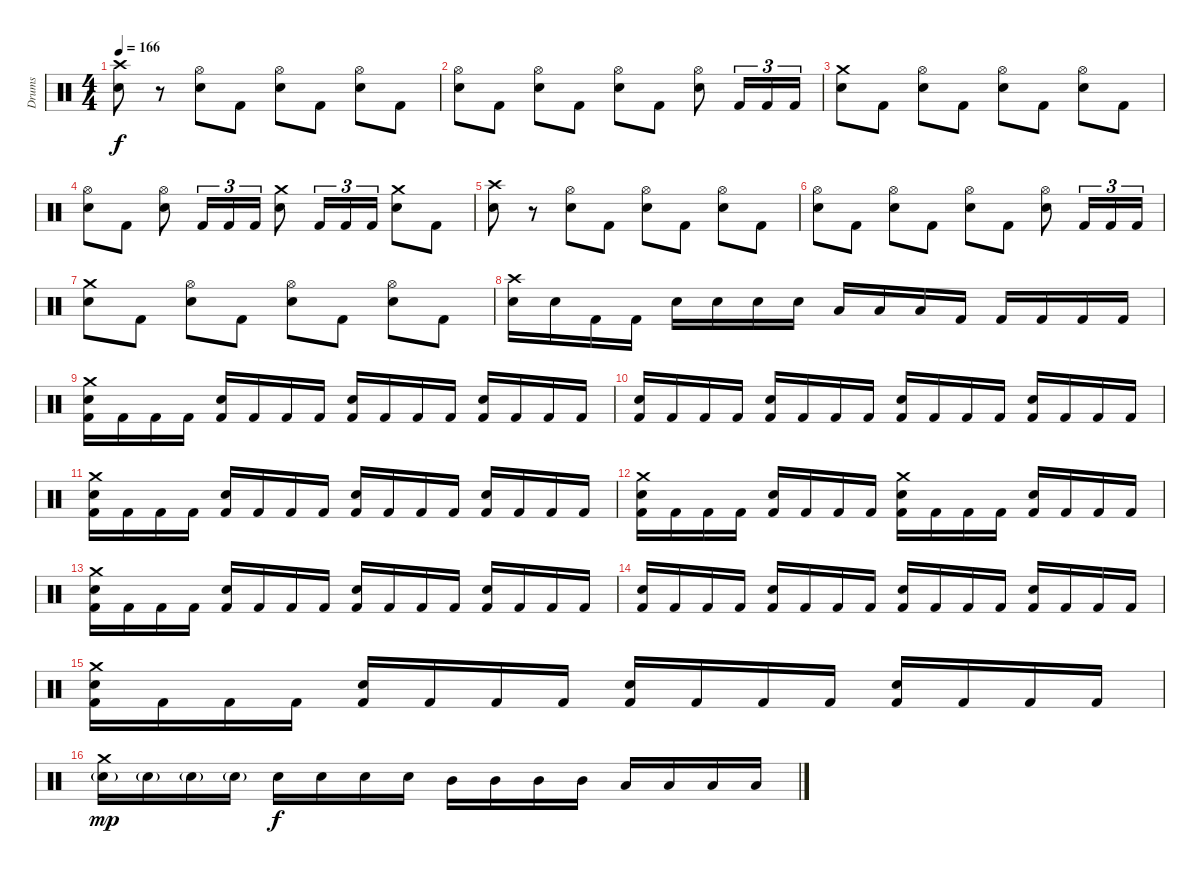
\track ("Drums" "Drums") {instrument percussion}
\staff {score}
\articulation defaults
\ts (4 4)
\tempo 166
\clef neutral
\ks c
("Crash high (hit)" "Snare (hit) 2").8{dy f} r.8 ("Hi-Hat (open)" "Snare (hit) 2").8 "Kick (hit) 2".8 ("Hi-Hat (open)" "Snare (hit) 2").8 "Kick (hit) 2".8 ("Hi-Hat (open)" "Snare (hit) 2").8 "Kick (hit) 2".8 |
("Hi-Hat (open)" "Snare (hit) 2").8 "Kick (hit) 2".8 ("Hi-Hat (open)" "Snare (hit) 2").8 "Kick (hit) 2".8 ("Hi-Hat (open)" "Snare (hit) 2").8 "Kick (hit) 2".8 ("Hi-Hat (open)" "Snare (hit) 2").8 "Kick (hit) 2".16{tu (3 2)} "Kick (hit) 2".16{tu (3 2)} "Kick (hit) 2".16{tu (3 2)} |
("Crash medium (hit)" "Snare (hit) 2").8 "Kick (hit) 2".8 ("Hi-Hat (open)" "Snare (hit) 2").8 "Kick (hit) 2".8 ("Hi-Hat (open)" "Snare (hit) 2").8 "Kick (hit) 2".8 ("Hi-Hat (open)" "Snare (hit) 2").8 "Kick (hit) 2".8 |
("Hi-Hat (open)" "Snare (hit) 2").8 "Kick (hit) 2".8 ("Hi-Hat (open)" "Snare (hit) 2").8 "Kick (hit) 2".16{tu (3 2)} "Kick (hit) 2".16{tu (3 2)} "Kick (hit) 2".16{tu (3 2)} ("Crash medium (hit)" "Snare (hit) 2").8 "Kick (hit) 2".16{tu (3 2)} "Kick (hit) 2".16{tu (3 2)} "Kick (hit) 2".16{tu (3 2)} ("Crash medium (hit)" "Snare (hit) 2").8 "Kick (hit) 2".8 |
("Crash high (hit)" "Snare (hit) 2").8 r.8 ("Hi-Hat (open)" "Snare (hit) 2").8 "Kick (hit) 2".8 ("Hi-Hat (open)" "Snare (hit) 2").8 "Kick (hit) 2".8 ("Hi-Hat (open)" "Snare (hit) 2").8 "Kick (hit) 2".8 |
("Hi-Hat (open)" "Snare (hit) 2").8 "Kick (hit) 2".8 ("Hi-Hat (open)" "Snare (hit) 2").8 "Kick (hit) 2".8 ("Hi-Hat (open)" "Snare (hit) 2").8 "Kick (hit) 2".8 ("Hi-Hat (open)" "Snare (hit) 2").8 "Kick (hit) 2".16{tu (3 2)} "Kick (hit) 2".16{tu (3 2)} "Kick (hit) 2".16{tu (3 2)} |
("Crash medium (hit)" "Snare (hit) 2").8 "Kick (hit) 2".8 ("Hi-Hat (open)" "Snare (hit) 2").8 "Kick (hit) 2".8 ("Hi-Hat (open)" "Snare (hit) 2").8 "Kick (hit) 2".8 ("Hi-Hat (open)" "Snare (hit) 2").8 "Kick (hit) 2".8 |
("Crash high (hit)" "Snare (hit) 2").16 "Snare (hit) 2".16 "Kick (hit) 2".16 "Kick (hit) 2".16 "Snare (hit) 2".16 "Snare (hit) 2".16 "Snare (hit) 2".16 "Snare (hit) 2".16 "Low Tom (hit)".16 "Low Tom (hit)".16 "Low Tom (hit)".16 "Kick (hit) 2".16 "Kick (hit) 2".16 "Kick (hit) 2".16 "Kick (hit) 2".16 "Kick (hit) 2".16 |
("Crash medium (hit)" "Snare (hit) 2" "Kick (hit) 2").16 "Kick (hit) 2".16 "Kick (hit) 2".16 "Kick (hit) 2".16 ("Snare (hit) 2" "Kick (hit) 2").16 "Kick (hit) 2".16 "Kick (hit) 2".16 "Kick (hit) 2".16 ("Snare (hit) 2" "Kick (hit) 2").16 "Kick (hit) 2".16 "Kick (hit) 2".16 "Kick (hit) 2".16 ("Snare (hit) 2" "Kick (hit) 2").16 "Kick (hit) 2".16 "Kick (hit) 2".16 "Kick (hit) 2".16 |
("Snare (hit) 2" "Kick (hit) 2").16 "Kick (hit) 2".16 "Kick (hit) 2".16 "Kick (hit) 2".16 ("Snare (hit) 2" "Kick (hit) 2").16 "Kick (hit) 2".16 "Kick (hit) 2".16 "Kick (hit) 2".16 ("Snare (hit) 2" "Kick (hit) 2").16 "Kick (hit) 2".16 "Kick (hit) 2".16 "Kick (hit) 2".16 ("Snare (hit) 2" "Kick (hit) 2").16 "Kick (hit) 2".16 "Kick (hit) 2".16 "Kick (hit) 2".16 |
("Crash medium (hit)" "Snare (hit) 2" "Kick (hit) 2").16 "Kick (hit) 2".16 "Kick (hit) 2".16 "Kick (hit) 2".16 ("Snare (hit) 2" "Kick (hit) 2").16 "Kick (hit) 2".16 "Kick (hit) 2".16 "Kick (hit) 2".16 ("Snare (hit) 2" "Kick (hit) 2").16 "Kick (hit) 2".16 "Kick (hit) 2".16 "Kick (hit) 2".16 ("Snare (hit) 2" "Kick (hit) 2").16 "Kick (hit) 2".16 "Kick (hit) 2".16 "Kick (hit) 2".16 |
("Crash medium (hit)" "Snare (hit) 2" "Kick (hit) 2").16 "Kick (hit) 2".16 "Kick (hit) 2".16 "Kick (hit) 2".16 ("Snare (hit) 2" "Kick (hit) 2").16 "Kick (hit) 2".16 "Kick (hit) 2".16 "Kick (hit) 2".16 ("Crash medium (hit)" "Snare (hit) 2" "Kick (hit) 2").16 "Kick (hit) 2".16 "Kick (hit) 2".16 "Kick (hit) 2".16 ("Snare (hit) 2" "Kick (hit) 2").16 "Kick (hit) 2".16 "Kick (hit) 2".16 "Kick (hit) 2".16 |
("Crash medium (hit)" "Snare (hit) 2" "Kick (hit) 2").16 "Kick (hit) 2".16 "Kick (hit) 2".16 "Kick (hit) 2".16 ("Snare (hit) 2" "Kick (hit) 2").16 "Kick (hit) 2".16 "Kick (hit) 2".16 "Kick (hit) 2".16 ("Snare (hit) 2" "Kick (hit) 2").16 "Kick (hit) 2".16 "Kick (hit) 2".16 "Kick (hit) 2".16 ("Snare (hit) 2" "Kick (hit) 2").16 "Kick (hit) 2".16 "Kick (hit) 2".16 "Kick (hit) 2".16 |
("Snare (hit) 2" "Kick (hit) 2").16 "Kick (hit) 2".16 "Kick (hit) 2".16 "Kick (hit) 2".16 ("Snare (hit) 2" "Kick (hit) 2").16 "Kick (hit) 2".16 "Kick (hit) 2".16 "Kick (hit) 2".16 ("Snare (hit) 2" "Kick (hit) 2").16 "Kick (hit) 2".16 "Kick (hit) 2".16 "Kick (hit) 2".16 ("Snare (hit) 2" "Kick (hit) 2").16 "Kick (hit) 2".16 "Kick (hit) 2".16 "Kick (hit) 2".16 |
("Crash medium (hit)" "Snare (hit) 2" "Kick (hit) 2").16 "Kick (hit) 2".16 "Kick (hit) 2".16 "Kick (hit) 2".16 ("Snare (hit) 2" "Kick (hit) 2").16 "Kick (hit) 2".16 "Kick (hit) 2".16 "Kick (hit) 2".16 ("Snare (hit) 2" "Kick (hit) 2").16 "Kick (hit) 2".16 "Kick (hit) 2".16 "Kick (hit) 2".16 ("Snare (hit) 2" "Kick (hit) 2").16 "Kick (hit) 2".16 "Kick (hit) 2".16 "Kick (hit) 2".16 |
("Crash medium (hit)" "Snare (hit) 2"{g}).16{dy mp} "Snare (hit) 2"{g}.16 "Snare (hit) 2"{g}.16 "Snare (hit) 2"{g}.16 "Snare (hit) 2".16{dy f} "Snare (hit) 2".16 "Snare (hit) 2".16 "Snare (hit) 2".16 "Mid Tom (hit)".16 "Mid Tom (hit)".16 "Mid Tom (hit)".16 "Mid Tom (hit)".16 "Low Tom (hit)".16 "Low Tom (hit)".16 "Low Tom (hit)".16 "Low Tom (hit)".16
